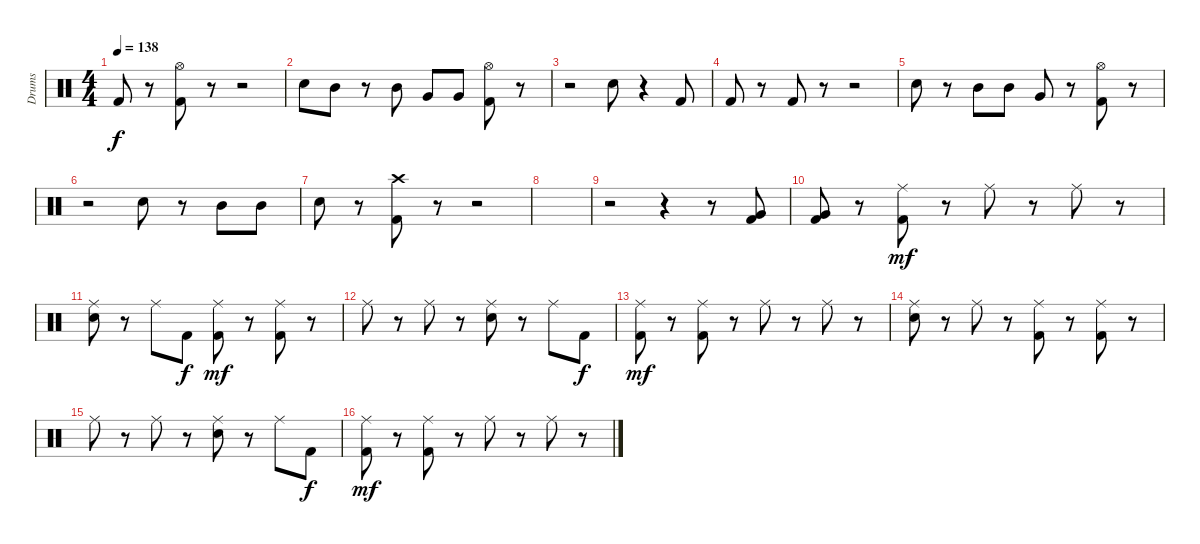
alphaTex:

\track ("Drums" "Drums") {instrument percussion}
\staff {score}
\articulation defaults
\ts (4 4)
\tempo 138
\clef neutral
\ks c "Kick (hit) 2".8{dy f}
r.8 ("Hi-Hat (open)" "Kick (hit) 2").8 r.8 r.2 |
"Snare (hit) 2".8 "Mid Tom (hit)".8 r.8 "Mid Tom (hit)".8 "Very Low Tom (hit)".8 "Very Low Tom (hit)".8 ("Hi-Hat (open)" "Kick (hit) 2").8 r.8 |
r.2 "Snare (hit) 2".8 r.4 "Kick (hit) 2".8 |
"Kick (hit) 2".8 r.8 "Kick (hit) 2".8 r.8 r.2 |
"Snare (hit) 2".8 r.8 "Mid Tom (hit)".8 "Mid Tom (hit)".8 "Very Low Tom (hit)".8 r.8 ("Hi-Hat (open)" "Kick (hit) 2").8 r.8 |
r.2 "Snare (hit) 2".8 r.8 "Mid Tom (hit)".8 "Mid Tom (hit)".8 |
"Snare (hit) 2".8 r.8 ("Crash high (hit)" "Kick (hit) 2").8 r.8 r.2 |
|
r.2 r.4 r.8 ("Very Low Tom (hit)" "Kick (hit) 2").8 |
("Very Low Tom (hit)" "Kick (hit) 2").8 r.8 ("Ride (middle)" "Kick (hit) 2").8{dy mf} r.8 "Ride (middle)".8 r.8 "Ride (middle)".8 r.8 |
("Ride (middle)" "Snare (hit) 2").8 r.8 "Ride (middle)".8 "Kick (hit) 2".8{dy f} ("Ride (middle)" "Kick (hit) 2").8{dy mf} r.8 ("Ride (middle)" "Kick (hit) 2").8 r.8 |
"Ride (middle)".8 r.8 "Ride (middle)".8 r.8 ("Ride (middle)" "Snare (hit) 2").8 r.8 "Ride (middle)".8 "Kick (hit) 2".8{dy f} |
("Ride (middle)" "Kick (hit) 2").8{dy mf} r.8 ("Ride (middle)" "Kick (hit) 2").8 r.8 "Ride (middle)".8 r.8 "Ride (middle)".8 r.8 |
("Ride (middle)" "Snare (hit) 2").8 r.8 "Ride (middle)".8 r.8 ("Ride (middle)" "Kick (hit) 2").8 r.8 ("Ride (middle)" "Kick (hit) 2").8 r.8 |
"Ride (middle)".8 r.8 "Ride (middle)".8 r.8 ("Ride (middle)" "Snare (hit) 2").8 r.8 "Ride (middle)".8 "Kick (hit) 2".8{dy f} |
("Ride (middle)" "Kick (hit) 2").8{dy mf} r.8 ("Ride (middle)" "Kick (hit) 2").8 r.8 "Ride (middle)".8 r.8 "Ride (middle)".8 r.8
